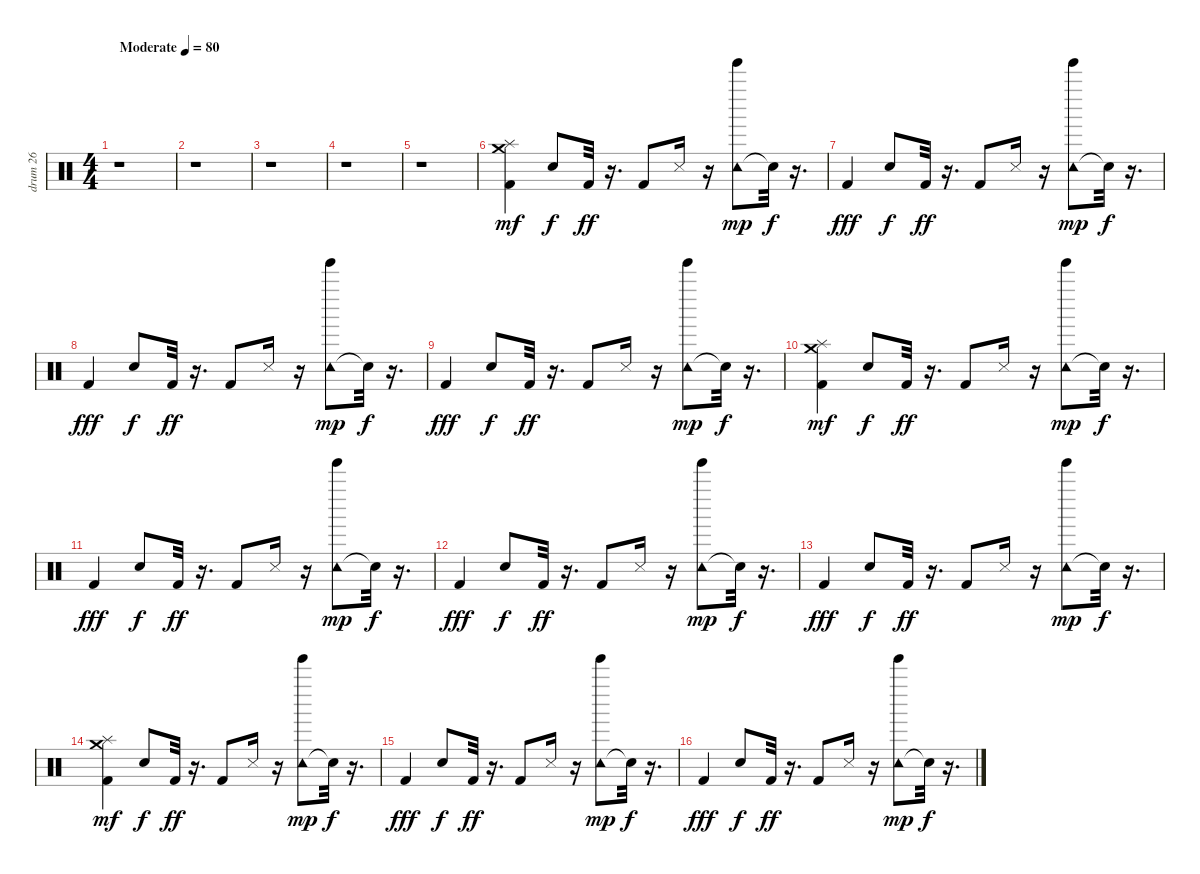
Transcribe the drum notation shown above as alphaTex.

\track ("drum 26" "drum 26") {instrument percussion}
\staff {score}
\articulation defaults
\ts (4 4)
\tempo (80 "Moderate")
\clef neutral
\ks c
r.1{dy mf} |
r.1 |
r.1 |
r.1 |
r.1 |
("Kick (hit) 2" "Splash (hit)" "Crash medium (hit)").4 "Hand Clap (hit)".8{dy f} "Kick (hit) 2".32{dy ff} r.16{d} "Kick (hit) 2".8 "Snare (side stick) 3".16 r.16 ("Tambourine (hit)" "Tinkle Bell (hit)").8{dy mp} "Snare (hit)"{t}.32{dy f} r.16{d} |
"Kick (hit) 2".4{dy fff} "Hand Clap (hit)".8{dy f} "Kick (hit) 2".32{dy ff} r.16{d} "Kick (hit) 2".8 "Snare (side stick) 3".16 r.16 ("Tambourine (hit)" "Tinkle Bell (hit)").8{dy mp} "Snare (hit)"{t}.32{dy f} r.16{d} |
"Kick (hit) 2".4{dy fff} "Hand Clap (hit)".8{dy f} "Kick (hit) 2".32{dy ff} r.16{d} "Kick (hit) 2".8 "Snare (side stick) 3".16 r.16 ("Tambourine (hit)" "Tinkle Bell (hit)").8{dy mp} "Snare (hit)"{t}.32{dy f} r.16{d} |
"Kick (hit) 2".4{dy fff} "Hand Clap (hit)".8{dy f} "Kick (hit) 2".32{dy ff} r.16{d} "Kick (hit) 2".8 "Snare (side stick) 3".16 r.16 ("Tambourine (hit)" "Tinkle Bell (hit)").8{dy mp} "Snare (hit)"{t}.32{dy f} r.16{d} |
("Kick (hit) 2" "Splash (hit)" "Crash medium (hit)").4{dy mf} "Hand Clap (hit)".8{dy f} "Kick (hit) 2".32{dy ff} r.16{d} "Kick (hit) 2".8 "Snare (side stick) 3".16 r.16 ("Tambourine (hit)" "Tinkle Bell (hit)").8{dy mp} "Snare (hit)"{t}.32{dy f} r.16{d} |
"Kick (hit) 2".4{dy fff} "Hand Clap (hit)".8{dy f} "Kick (hit) 2".32{dy ff} r.16{d} "Kick (hit) 2".8 "Snare (side stick) 3".16 r.16 ("Tambourine (hit)" "Tinkle Bell (hit)").8{dy mp} "Snare (hit)"{t}.32{dy f} r.16{d} |
"Kick (hit) 2".4{dy fff} "Hand Clap (hit)".8{dy f} "Kick (hit) 2".32{dy ff} r.16{d} "Kick (hit) 2".8 "Snare (side stick) 3".16 r.16 ("Tambourine (hit)" "Tinkle Bell (hit)").8{dy mp} "Snare (hit)"{t}.32{dy f} r.16{d} |
"Kick (hit) 2".4{dy fff} "Hand Clap (hit)".8{dy f} "Kick (hit) 2".32{dy ff} r.16{d} "Kick (hit) 2".8 "Snare (side stick) 3".16 r.16 ("Tambourine (hit)" "Tinkle Bell (hit)").8{dy mp} "Snare (hit)"{t}.32{dy f} r.16{d} |
("Kick (hit) 2" "Splash (hit)" "Crash medium (hit)").4{dy mf} "Hand Clap (hit)".8{dy f} "Kick (hit) 2".32{dy ff} r.16{d} "Kick (hit) 2".8 "Snare (side stick) 3".16 r.16 ("Tambourine (hit)" "Tinkle Bell (hit)").8{dy mp} "Snare (hit)"{t}.32{dy f} r.16{d} |
"Kick (hit) 2".4{dy fff} "Hand Clap (hit)".8{dy f} "Kick (hit) 2".32{dy ff} r.16{d} "Kick (hit) 2".8 "Snare (side stick) 3".16 r.16 ("Tambourine (hit)" "Tinkle Bell (hit)").8{dy mp} "Snare (hit)"{t}.32{dy f} r.16{d} |
"Kick (hit) 2".4{dy fff} "Hand Clap (hit)".8{dy f} "Kick (hit) 2".32{dy ff} r.16{d} "Kick (hit) 2".8 "Snare (side stick) 3".16 r.16 ("Tambourine (hit)" "Tinkle Bell (hit)").8{dy mp} "Snare (hit)"{t}.32{dy f} r.16{d}
